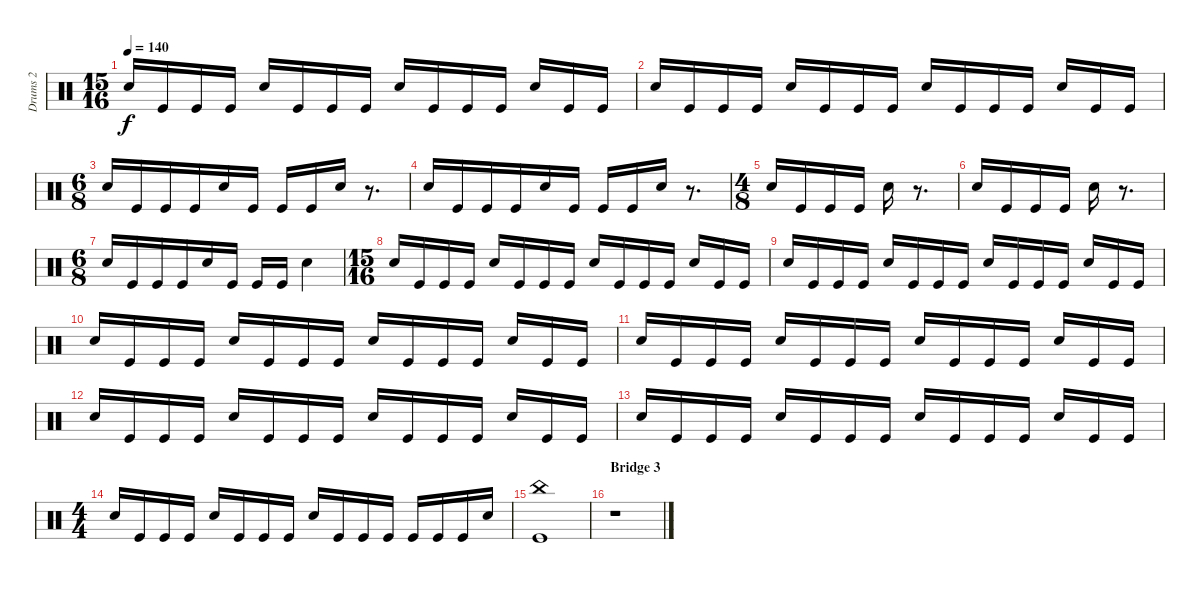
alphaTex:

\track ("Drums 2" "Drums 2") {instrument percussion}
\staff {score}
\articulation defaults
\ts (15 16)
\tempo 140
\clef neutral
\ks c "Snare (hit) 2".16{dy f} "Kick (hit)".16 "Kick (hit)".16 "Kick (hit)".16 "Snare (hit) 2".16 "Kick (hit)".16 "Kick (hit)".16 "Kick (hit)".16 "Snare (hit) 2".16 "Kick (hit)".16 "Kick (hit)".16 "Kick (hit)".16 "Snare (hit) 2".16 "Kick (hit)".16 "Kick (hit)".16
|
"Snare (hit) 2".16 "Kick (hit)".16 "Kick (hit)".16 "Kick (hit)".16 "Snare (hit) 2".16 "Kick (hit)".16 "Kick (hit)".16 "Kick (hit)".16 "Snare (hit) 2".16 "Kick (hit)".16 "Kick (hit)".16 "Kick (hit)".16 "Snare (hit) 2".16 "Kick (hit)".16 "Kick (hit)".16 |
\ts (6 8)
"Snare (hit) 2".16 "Kick (hit)".16 "Kick (hit)".16 "Kick (hit)".16 "Snare (hit) 2".16 "Kick (hit)".16 "Kick (hit)".16 "Kick (hit)".16 "Snare (hit) 2".16 r.8{d} |
"Snare (hit) 2".16 "Kick (hit)".16 "Kick (hit)".16 "Kick (hit)".16 "Snare (hit) 2".16 "Kick (hit)".16 "Kick (hit)".16 "Kick (hit)".16 "Snare (hit) 2".16 r.8{d} |
\ts (4 8)
"Snare (hit) 2".16 "Kick (hit)".16 "Kick (hit)".16 "Kick (hit)".16 "Snare (hit) 2".16 r.8{d} |
"Snare (hit) 2".16 "Kick (hit)".16 "Kick (hit)".16 "Kick (hit)".16 "Snare (hit) 2".16 r.8{d} |
\ts (6 8)
"Snare (hit) 2".16 "Kick (hit)".16 "Kick (hit)".16 "Kick (hit)".16 "Snare (hit) 2".16 "Kick (hit)".16 "Kick (hit)".16 "Kick (hit)".16 "Snare (hit) 2".4 |
\ts (15 16)
"Snare (hit) 2".16 "Kick (hit)".16 "Kick (hit)".16 "Kick (hit)".16 "Snare (hit) 2".16 "Kick (hit)".16 "Kick (hit)".16 "Kick (hit)".16 "Snare (hit) 2".16 "Kick (hit)".16 "Kick (hit)".16 "Kick (hit)".16 "Snare (hit) 2".16 "Kick (hit)".16 "Kick (hit)".16 |
"Snare (hit) 2".16 "Kick (hit)".16 "Kick (hit)".16 "Kick (hit)".16 "Snare (hit) 2".16 "Kick (hit)".16 "Kick (hit)".16 "Kick (hit)".16 "Snare (hit) 2".16 "Kick (hit)".16 "Kick (hit)".16 "Kick (hit)".16 "Snare (hit) 2".16 "Kick (hit)".16 "Kick (hit)".16 |
"Snare (hit) 2".16 "Kick (hit)".16 "Kick (hit)".16 "Kick (hit)".16 "Snare (hit) 2".16 "Kick (hit)".16 "Kick (hit)".16 "Kick (hit)".16 "Snare (hit) 2".16 "Kick (hit)".16 "Kick (hit)".16 "Kick (hit)".16 "Snare (hit) 2".16 "Kick (hit)".16 "Kick (hit)".16 |
"Snare (hit) 2".16 "Kick (hit)".16 "Kick (hit)".16 "Kick (hit)".16 "Snare (hit) 2".16 "Kick (hit)".16 "Kick (hit)".16 "Kick (hit)".16 "Snare (hit) 2".16 "Kick (hit)".16 "Kick (hit)".16 "Kick (hit)".16 "Snare (hit) 2".16 "Kick (hit)".16 "Kick (hit)".16 |
"Snare (hit) 2".16 "Kick (hit)".16 "Kick (hit)".16 "Kick (hit)".16 "Snare (hit) 2".16 "Kick (hit)".16 "Kick (hit)".16 "Kick (hit)".16 "Snare (hit) 2".16 "Kick (hit)".16 "Kick (hit)".16 "Kick (hit)".16 "Snare (hit) 2".16 "Kick (hit)".16 "Kick (hit)".16 |
"Snare (hit) 2".16 "Kick (hit)".16 "Kick (hit)".16 "Kick (hit)".16 "Snare (hit) 2".16 "Kick (hit)".16 "Kick (hit)".16 "Kick (hit)".16 "Snare (hit) 2".16 "Kick (hit)".16 "Kick (hit)".16 "Kick (hit)".16 "Snare (hit) 2".16 "Kick (hit)".16 "Kick (hit)".16 |
\ts (4 4)
"Snare (hit) 2".16 "Kick (hit)".16 "Kick (hit)".16 "Kick (hit)".16 "Snare (hit) 2".16 "Kick (hit)".16 "Kick (hit)".16 "Kick (hit)".16 "Snare (hit) 2".16 "Kick (hit)".16 "Kick (hit)".16 "Kick (hit)".16 "Kick (hit)".16 "Kick (hit)".16 "Kick (hit)".16 "Snare (hit) 2".16 |
("Kick (hit)" "China (hit)").1 |
\section ("" "Bridge 3")
r.1
